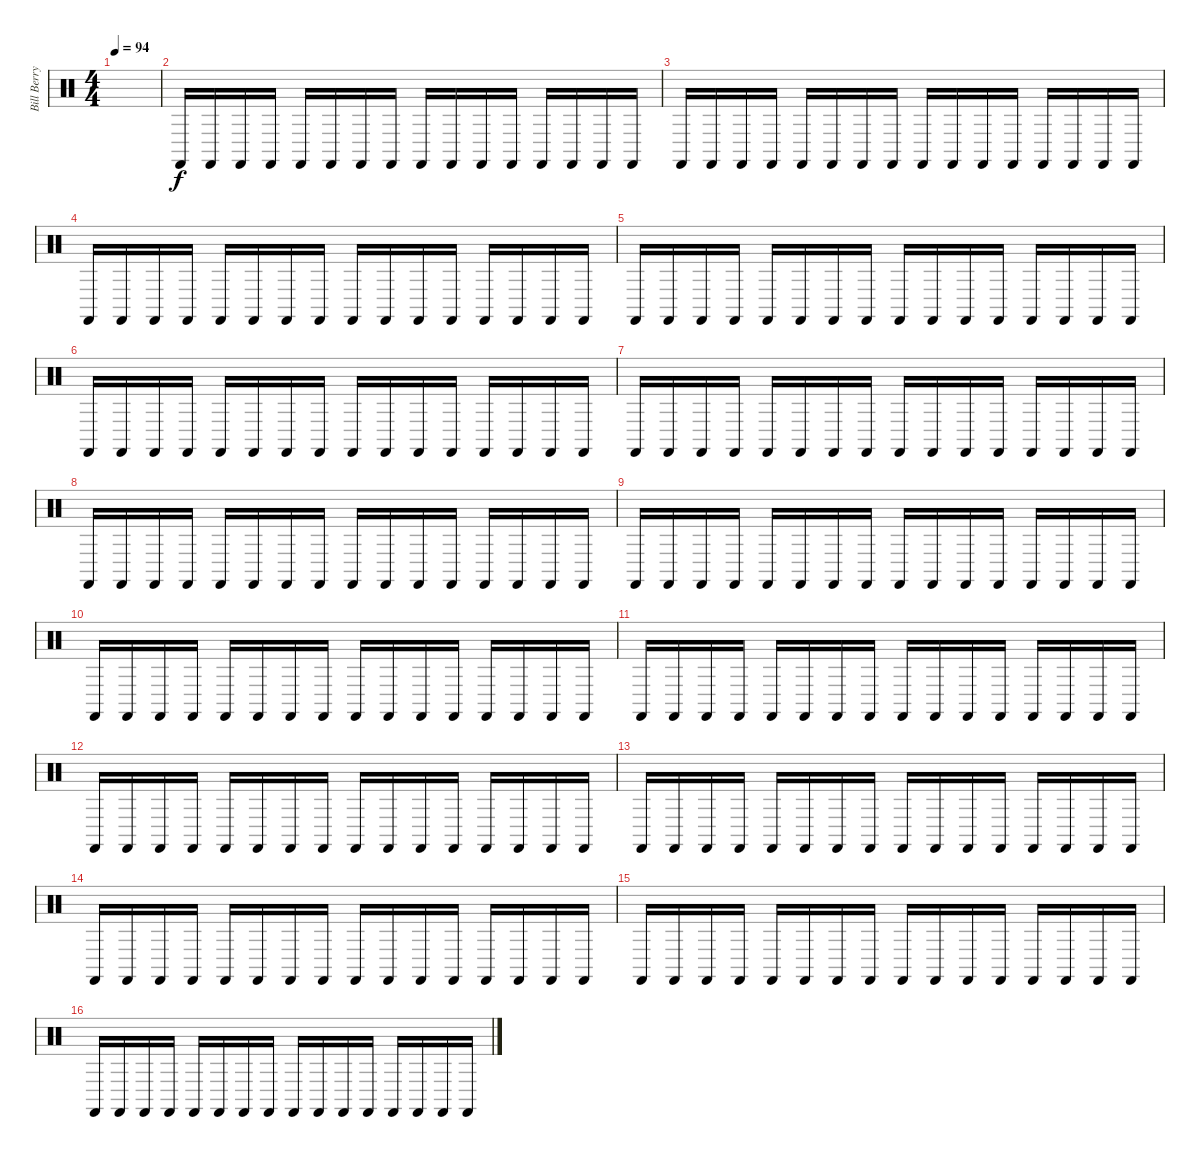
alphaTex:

\track ("Bill Berry - Percussion" "Bill Berry") {instrument percussion}
\staff {score}
\articulation defaults
\ts (4 4)
\tempo 94
\clef neutral
\ks c
|
"Castanets (hit)".16 "Castanets (hit)".16 "Castanets (hit)".16 "Castanets (hit)".16 "Castanets (hit)".16 "Castanets (hit)".16 "Castanets (hit)".16 "Castanets (hit)".16 "Castanets (hit)".16 "Castanets (hit)".16 "Castanets (hit)".16 "Castanets (hit)".16 "Castanets (hit)".16 "Castanets (hit)".16 "Castanets (hit)".16 "Castanets (hit)".16 |
"Castanets (hit)".16 "Castanets (hit)".16 "Castanets (hit)".16 "Castanets (hit)".16 "Castanets (hit)".16 "Castanets (hit)".16 "Castanets (hit)".16 "Castanets (hit)".16 "Castanets (hit)".16 "Castanets (hit)".16 "Castanets (hit)".16 "Castanets (hit)".16 "Castanets (hit)".16 "Castanets (hit)".16 "Castanets (hit)".16 "Castanets (hit)".16 |
"Castanets (hit)".16 "Castanets (hit)".16 "Castanets (hit)".16 "Castanets (hit)".16 "Castanets (hit)".16 "Castanets (hit)".16 "Castanets (hit)".16 "Castanets (hit)".16 "Castanets (hit)".16 "Castanets (hit)".16 "Castanets (hit)".16 "Castanets (hit)".16 "Castanets (hit)".16 "Castanets (hit)".16 "Castanets (hit)".16 "Castanets (hit)".16 |
"Castanets (hit)".16 "Castanets (hit)".16 "Castanets (hit)".16 "Castanets (hit)".16 "Castanets (hit)".16 "Castanets (hit)".16 "Castanets (hit)".16 "Castanets (hit)".16 "Castanets (hit)".16 "Castanets (hit)".16 "Castanets (hit)".16 "Castanets (hit)".16 "Castanets (hit)".16 "Castanets (hit)".16 "Castanets (hit)".16 "Castanets (hit)".16 |
"Castanets (hit)".16 "Castanets (hit)".16 "Castanets (hit)".16 "Castanets (hit)".16 "Castanets (hit)".16 "Castanets (hit)".16 "Castanets (hit)".16 "Castanets (hit)".16 "Castanets (hit)".16 "Castanets (hit)".16 "Castanets (hit)".16 "Castanets (hit)".16 "Castanets (hit)".16 "Castanets (hit)".16 "Castanets (hit)".16 "Castanets (hit)".16 |
"Castanets (hit)".16 "Castanets (hit)".16 "Castanets (hit)".16 "Castanets (hit)".16 "Castanets (hit)".16 "Castanets (hit)".16 "Castanets (hit)".16 "Castanets (hit)".16 "Castanets (hit)".16 "Castanets (hit)".16 "Castanets (hit)".16 "Castanets (hit)".16 "Castanets (hit)".16 "Castanets (hit)".16 "Castanets (hit)".16 "Castanets (hit)".16 |
"Castanets (hit)".16 "Castanets (hit)".16 "Castanets (hit)".16 "Castanets (hit)".16 "Castanets (hit)".16 "Castanets (hit)".16 "Castanets (hit)".16 "Castanets (hit)".16 "Castanets (hit)".16 "Castanets (hit)".16 "Castanets (hit)".16 "Castanets (hit)".16 "Castanets (hit)".16 "Castanets (hit)".16 "Castanets (hit)".16 "Castanets (hit)".16 |
"Castanets (hit)".16 "Castanets (hit)".16 "Castanets (hit)".16 "Castanets (hit)".16 "Castanets (hit)".16 "Castanets (hit)".16 "Castanets (hit)".16 "Castanets (hit)".16 "Castanets (hit)".16 "Castanets (hit)".16 "Castanets (hit)".16 "Castanets (hit)".16 "Castanets (hit)".16 "Castanets (hit)".16 "Castanets (hit)".16 "Castanets (hit)".16 |
"Castanets (hit)".16 "Castanets (hit)".16 "Castanets (hit)".16 "Castanets (hit)".16 "Castanets (hit)".16 "Castanets (hit)".16 "Castanets (hit)".16 "Castanets (hit)".16 "Castanets (hit)".16 "Castanets (hit)".16 "Castanets (hit)".16 "Castanets (hit)".16 "Castanets (hit)".16 "Castanets (hit)".16 "Castanets (hit)".16 "Castanets (hit)".16 |
"Castanets (hit)".16 "Castanets (hit)".16 "Castanets (hit)".16 "Castanets (hit)".16 "Castanets (hit)".16 "Castanets (hit)".16 "Castanets (hit)".16 "Castanets (hit)".16 "Castanets (hit)".16 "Castanets (hit)".16 "Castanets (hit)".16 "Castanets (hit)".16 "Castanets (hit)".16 "Castanets (hit)".16 "Castanets (hit)".16 "Castanets (hit)".16 |
"Castanets (hit)".16 "Castanets (hit)".16 "Castanets (hit)".16 "Castanets (hit)".16 "Castanets (hit)".16 "Castanets (hit)".16 "Castanets (hit)".16 "Castanets (hit)".16 "Castanets (hit)".16 "Castanets (hit)".16 "Castanets (hit)".16 "Castanets (hit)".16 "Castanets (hit)".16 "Castanets (hit)".16 "Castanets (hit)".16 "Castanets (hit)".16 |
"Castanets (hit)".16 "Castanets (hit)".16 "Castanets (hit)".16 "Castanets (hit)".16 "Castanets (hit)".16 "Castanets (hit)".16 "Castanets (hit)".16 "Castanets (hit)".16 "Castanets (hit)".16 "Castanets (hit)".16 "Castanets (hit)".16 "Castanets (hit)".16 "Castanets (hit)".16 "Castanets (hit)".16 "Castanets (hit)".16 "Castanets (hit)".16 |
"Castanets (hit)".16 "Castanets (hit)".16 "Castanets (hit)".16 "Castanets (hit)".16 "Castanets (hit)".16 "Castanets (hit)".16 "Castanets (hit)".16 "Castanets (hit)".16 "Castanets (hit)".16 "Castanets (hit)".16 "Castanets (hit)".16 "Castanets (hit)".16 "Castanets (hit)".16 "Castanets (hit)".16 "Castanets (hit)".16 "Castanets (hit)".16 |
"Castanets (hit)".16 "Castanets (hit)".16 "Castanets (hit)".16 "Castanets (hit)".16 "Castanets (hit)".16 "Castanets (hit)".16 "Castanets (hit)".16 "Castanets (hit)".16 "Castanets (hit)".16 "Castanets (hit)".16 "Castanets (hit)".16 "Castanets (hit)".16 "Castanets (hit)".16 "Castanets (hit)".16 "Castanets (hit)".16 "Castanets (hit)".16 |
"Castanets (hit)".16 "Castanets (hit)".16 "Castanets (hit)".16 "Castanets (hit)".16 "Castanets (hit)".16 "Castanets (hit)".16 "Castanets (hit)".16 "Castanets (hit)".16 "Castanets (hit)".16 "Castanets (hit)".16 "Castanets (hit)".16 "Castanets (hit)".16 "Castanets (hit)".16 "Castanets (hit)".16 "Castanets (hit)".16 "Castanets (hit)".16
